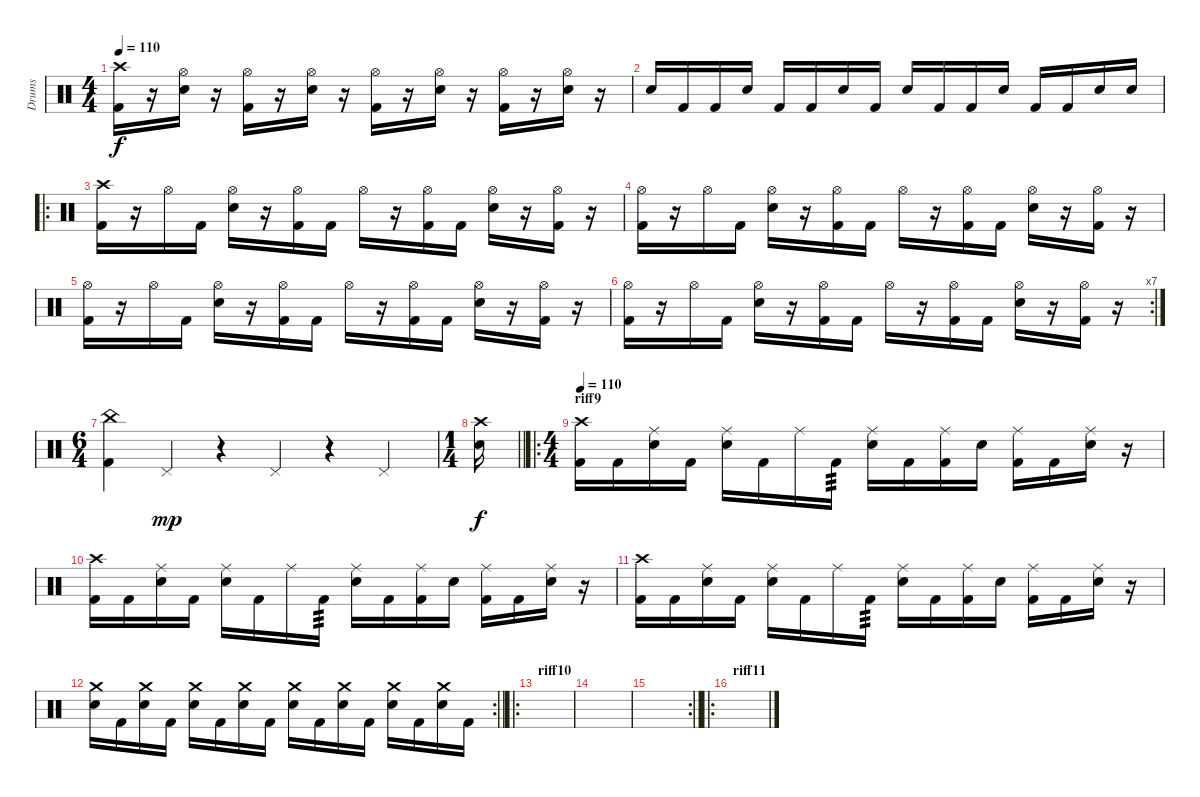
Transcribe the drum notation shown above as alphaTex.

\track ("Drums" "Drums") {instrument percussion}
\staff {score}
\articulation defaults
\ts (4 4)
\tempo 110
\clef neutral
\ks c
("Crash high (hit)" "Kick (hit) 2").16{dy f} r.16 ("Hi-Hat (open)" "Electric Snare (hit)").16 r.16 ("Hi-Hat (open)" "Kick (hit) 2").16 r.16 ("Hi-Hat (open)" "Electric Snare (hit)").16 r.16 ("Hi-Hat (open)" "Kick (hit) 2").16 r.16 ("Hi-Hat (open)" "Electric Snare (hit)").16 r.16 ("Hi-Hat (open)" "Kick (hit) 2").16 r.16 ("Hi-Hat (open)" "Electric Snare (hit)").16 r.16 |
"Electric Snare (hit)".16 "Kick (hit) 2".16 "Kick (hit) 2".16 "Electric Snare (hit)".16 "Kick (hit) 2".16 "Kick (hit) 2".16 "Electric Snare (hit)".16 "Kick (hit) 2".16 "Electric Snare (hit)".16 "Kick (hit) 2".16 "Kick (hit) 2".16 "Electric Snare (hit)".16 "Kick (hit) 2".16 "Kick (hit) 2".16 "Electric Snare (hit)".16 "Electric Snare (hit)".16 |
\ro
("Crash high (hit)" "Kick (hit) 2").16 r.16 "Hi-Hat (open)".16 "Kick (hit) 2".16 ("Hi-Hat (open)" "Electric Snare (hit)").16 r.16 ("Hi-Hat (open)" "Kick (hit) 2").16 "Kick (hit) 2".16 "Hi-Hat (open)".16 r.16 ("Hi-Hat (open)" "Kick (hit) 2").16 "Kick (hit) 2".16 ("Hi-Hat (open)" "Electric Snare (hit)").16 r.16 ("Hi-Hat (open)" "Kick (hit) 2").16 r.16 |
("Hi-Hat (open)" "Kick (hit) 2").16 r.16 "Hi-Hat (open)".16 "Kick (hit) 2".16 ("Hi-Hat (open)" "Electric Snare (hit)").16 r.16 ("Hi-Hat (open)" "Kick (hit) 2").16 "Kick (hit) 2".16 "Hi-Hat (open)".16 r.16 ("Hi-Hat (open)" "Kick (hit) 2").16 "Kick (hit) 2".16 ("Hi-Hat (open)" "Electric Snare (hit)").16 r.16 ("Hi-Hat (open)" "Kick (hit) 2").16 r.16 |
("Hi-Hat (open)" "Kick (hit) 2").16 r.16 "Hi-Hat (open)".16 "Kick (hit) 2".16 ("Hi-Hat (open)" "Electric Snare (hit)").16 r.16 ("Hi-Hat (open)" "Kick (hit) 2").16 "Kick (hit) 2".16 "Hi-Hat (open)".16 r.16 ("Hi-Hat (open)" "Kick (hit) 2").16 "Kick (hit) 2".16 ("Hi-Hat (open)" "Electric Snare (hit)").16 r.16 ("Hi-Hat (open)" "Kick (hit) 2").16 r.16 |
\rc 7
("Hi-Hat (open)" "Kick (hit) 2").16 r.16 "Hi-Hat (open)".16 "Kick (hit) 2".16 ("Hi-Hat (open)" "Electric Snare (hit)").16 r.16 ("Hi-Hat (open)" "Kick (hit) 2").16 "Kick (hit) 2".16 "Hi-Hat (open)".16 r.16 ("Hi-Hat (open)" "Kick (hit) 2").16 "Kick (hit) 2".16 ("Hi-Hat (open)" "Electric Snare (hit)").16 r.16 ("Hi-Hat (open)" "Kick (hit) 2").16 r.16 |
\ts (6 4)
("China (hit)" "Kick (hit) 2").4 "Pedal Hi-Hat (hit)".4{dy mp} r.4 "Pedal Hi-Hat (hit)".4 r.4 "Pedal Hi-Hat (hit)".4 |
\ts (1 4)
\barLineRight lightlight
("Crash high (hit)" "Electric Snare (hit)").16{dy f} |
\ro
\ts (4 4)
\section ("" "riff9")
\tempo 110
("Crash high (hit)" "Kick (hit) 2").16 "Kick (hit) 2".16 ("Ride (middle)" "Electric Snare (hit)").16 "Kick (hit) 2".16 ("Ride (middle)" "Electric Snare (hit)").16 "Kick (hit) 2".16 "Ride (middle)".16 "Kick (hit) 2".16{tp 3} ("Ride (middle)" "Electric Snare (hit)").16 "Kick (hit) 2".16 ("Ride (middle)" "Kick (hit) 2").16 "Electric Snare (hit)".16 ("Ride (middle)" "Kick (hit) 2").16 "Kick (hit) 2".16 ("Ride (middle)" "Electric Snare (hit)").16 r.16 |
("Crash high (hit)" "Kick (hit) 2").16 "Kick (hit) 2".16 ("Ride (middle)" "Electric Snare (hit)").16 "Kick (hit) 2".16 ("Ride (middle)" "Electric Snare (hit)").16 "Kick (hit) 2".16 "Ride (middle)".16 "Kick (hit) 2".16{tp 3} ("Ride (middle)" "Electric Snare (hit)").16 "Kick (hit) 2".16 ("Ride (middle)" "Kick (hit) 2").16 "Electric Snare (hit)".16 ("Ride (middle)" "Kick (hit) 2").16 "Kick (hit) 2".16 ("Ride (middle)" "Electric Snare (hit)").16 r.16 |
("Crash high (hit)" "Kick (hit) 2").16 "Kick (hit) 2".16 ("Ride (middle)" "Electric Snare (hit)").16 "Kick (hit) 2".16 ("Ride (middle)" "Electric Snare (hit)").16 "Kick (hit) 2".16 "Ride (middle)".16 "Kick (hit) 2".16{tp 3} ("Ride (middle)" "Electric Snare (hit)").16 "Kick (hit) 2".16 ("Ride (middle)" "Kick (hit) 2").16 "Electric Snare (hit)".16 ("Ride (middle)" "Kick (hit) 2").16 "Kick (hit) 2".16 ("Ride (middle)" "Electric Snare (hit)").16 r.16 |
\rc 2
\barLineRight lightlight
("Crash medium (hit)" "Electric Snare (hit)").16 "Kick (hit) 2".16 ("Crash medium (hit)" "Electric Snare (hit)").16 "Kick (hit) 2".16 ("Crash medium (hit)" "Electric Snare (hit)").16 "Kick (hit) 2".16 ("Crash medium (hit)" "Electric Snare (hit)").16 "Kick (hit) 2".16 ("Crash medium (hit)" "Electric Snare (hit)").16 "Kick (hit) 2".16 ("Crash medium (hit)" "Electric Snare (hit)").16 "Kick (hit) 2".16 ("Crash medium (hit)" "Electric Snare (hit)").16 "Kick (hit) 2".16 ("Crash medium (hit)" "Electric Snare (hit)").16 "Kick (hit) 2".16 |
\ro
\section ("" "riff10")
|
|
\rc 2
\barLineRight lightlight
|
\ro
\section ("" "riff11")
